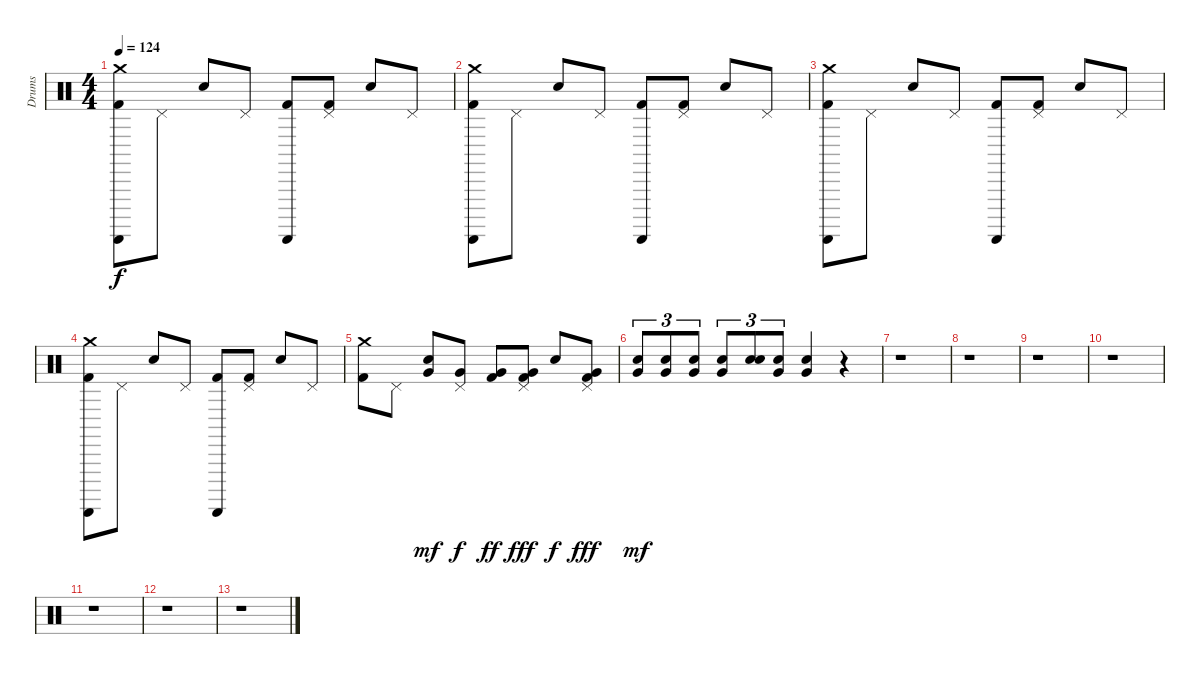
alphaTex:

\track ("Drums" "Drums") {instrument percussion}
\staff {score}
\articulation defaults
\ts (4 4)
\tempo 124
\clef neutral
\ks c
("Crash medium (hit)" "Guiro (scrap-return)" "Kick (hit) 2").8{dy f} "Pedal Hi-Hat (hit)".8 "Snare (hit) 2".8 "Pedal Hi-Hat (hit)".8 ("Guiro (scrap-return)" "Kick (hit) 2").8 ("Pedal Hi-Hat (hit)" "Kick (hit) 2").8 "Snare (hit) 2".8 "Pedal Hi-Hat (hit)".8 |
("Crash medium (hit)" "Guiro (scrap-return)" "Kick (hit) 2").8 "Pedal Hi-Hat (hit)".8 "Snare (hit) 2".8 "Pedal Hi-Hat (hit)".8 ("Guiro (scrap-return)" "Kick (hit) 2").8 ("Pedal Hi-Hat (hit)" "Kick (hit) 2").8 "Snare (hit) 2".8 "Pedal Hi-Hat (hit)".8 |
("Crash medium (hit)" "Guiro (scrap-return)" "Kick (hit) 2").8 "Pedal Hi-Hat (hit)".8 "Snare (hit) 2".8 "Pedal Hi-Hat (hit)".8 ("Guiro (scrap-return)" "Kick (hit) 2").8 ("Pedal Hi-Hat (hit)" "Kick (hit) 2").8 "Snare (hit) 2".8 "Pedal Hi-Hat (hit)".8 |
("Crash medium (hit)" "Guiro (scrap-return)" "Kick (hit) 2").8 "Pedal Hi-Hat (hit)".8 "Snare (hit) 2".8 "Pedal Hi-Hat (hit)".8 ("Guiro (scrap-return)" "Kick (hit) 2").8 ("Pedal Hi-Hat (hit)" "Kick (hit) 2").8 "Snare (hit) 2".8 "Pedal Hi-Hat (hit)".8 |
("Crash medium (hit)" "Kick (hit) 2").8 "Pedal Hi-Hat (hit)".8 ("Very Low Tom (hit)" "Snare (hit) 2").8{dy mf} ("Pedal Hi-Hat (hit)" "Very Low Tom (hit)").8{dy f} ("Very Low Tom (hit)" "Kick (hit) 2").8{dy ff} ("Pedal Hi-Hat (hit)" "Very Low Tom (hit)" "Kick (hit) 2").8{dy fff} "Snare (hit) 2".8{dy f} ("Pedal Hi-Hat (hit)" "Very Low Tom (hit)" "Kick (hit) 2").8{dy fff} |
("Very Low Tom (hit)" "Snare (hit) 2").8{tu (3 2) dy mf} ("Very Low Tom (hit)" "Snare (hit) 2").8{tu (3 2)} ("Very Low Tom (hit)" "Snare (hit) 2").8{tu (3 2)} ("Very Low Tom (hit)" "Snare (hit) 2").8{tu (3 2)} ("Metronome (bell)" "Snare (hit) 2").8{tu (3 2)} ("Very Low Tom (hit)" "Snare (hit) 2").8{tu (3 2)} ("Very Low Tom (hit)" "Snare (hit) 2").4 r.4 |
r.1 |
r.1 |
r.1 |
r.1 |
r.1 |
r.1 |
r.1
